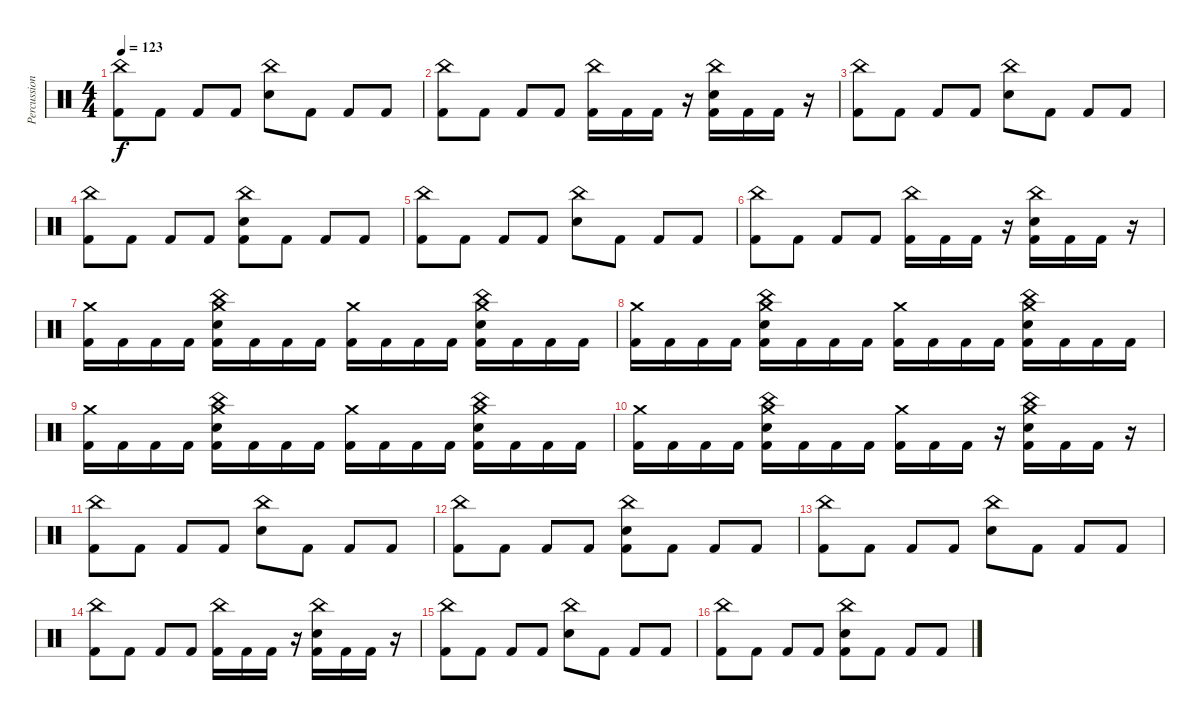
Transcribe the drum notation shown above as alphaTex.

\track ("Percussion" "Percussion") {instrument percussion}
\staff {score}
\articulation defaults
\ts (4 4)
\tempo 123
\clef neutral
\ks c
("China (hit)" "Kick (hit) 2").8{dy f} "Kick (hit) 2".8 "Kick (hit) 2".8 "Kick (hit) 2".8 ("China (hit)" "Snare (hit) 2").8 "Kick (hit) 2".8 "Kick (hit) 2".8 "Kick (hit) 2".8 |
("China (hit)" "Kick (hit) 2").8 "Kick (hit) 2".8 "Kick (hit) 2".8 "Kick (hit) 2".8 ("China (hit)" "Kick (hit) 2").16 "Kick (hit) 2".16 "Kick (hit) 2".16 r.16 ("China (hit)" "Snare (hit) 2" "Kick (hit) 2").16 "Kick (hit) 2".16 "Kick (hit) 2".16 r.16 |
("China (hit)" "Kick (hit) 2").8{volume 16} "Kick (hit) 2".8 "Kick (hit) 2".8 "Kick (hit) 2".8 ("China (hit)" "Snare (hit) 2").8 "Kick (hit) 2".8 "Kick (hit) 2".8 "Kick (hit) 2".8 |
("China (hit)" "Kick (hit) 2").8 "Kick (hit) 2".8 "Kick (hit) 2".8 "Kick (hit) 2".8 ("China (hit)" "Snare (hit) 2" "Kick (hit) 2").8 "Kick (hit) 2".8 "Kick (hit) 2".8 "Kick (hit) 2".8 |
("China (hit)" "Kick (hit) 2").8 "Kick (hit) 2".8 "Kick (hit) 2".8 "Kick (hit) 2".8 ("China (hit)" "Snare (hit) 2").8 "Kick (hit) 2".8 "Kick (hit) 2".8 "Kick (hit) 2".8 |
("China (hit)" "Kick (hit) 2").8 "Kick (hit) 2".8 "Kick (hit) 2".8 "Kick (hit) 2".8 ("China (hit)" "Kick (hit) 2").16 "Kick (hit) 2".16 "Kick (hit) 2".16 r.16 ("China (hit)" "Snare (hit) 2" "Kick (hit) 2").16 "Kick (hit) 2".16 "Kick (hit) 2".16 r.16 |
("Crash medium (hit)" "Kick (hit) 2").16 "Kick (hit) 2".16 "Kick (hit) 2".16 "Kick (hit) 2".16 ("Crash medium (hit)" "China (hit)" "Snare (hit) 2" "Kick (hit) 2").16 "Kick (hit) 2".16 "Kick (hit) 2".16 "Kick (hit) 2".16 ("Crash medium (hit)" "Kick (hit) 2").16 "Kick (hit) 2".16 "Kick (hit) 2".16 "Kick (hit) 2".16 ("Crash medium (hit)" "Snare (hit) 2" "China (hit)" "Kick (hit) 2").16 "Kick (hit) 2".16 "Kick (hit) 2".16 "Kick (hit) 2".16 |
("Crash medium (hit)" "Kick (hit) 2").16 "Kick (hit) 2".16 "Kick (hit) 2".16 "Kick (hit) 2".16 ("Crash medium (hit)" "Snare (hit) 2" "China (hit)" "Kick (hit) 2").16 "Kick (hit) 2".16 "Kick (hit) 2".16 "Kick (hit) 2".16 ("Crash medium (hit)" "Kick (hit) 2").16 "Kick (hit) 2".16 "Kick (hit) 2".16 "Kick (hit) 2".16 ("Crash medium (hit)" "China (hit)" "Snare (hit) 2" "Kick (hit) 2").16 "Kick (hit) 2".16 "Kick (hit) 2".16 "Kick (hit) 2".16 |
("Crash medium (hit)" "Kick (hit) 2").16 "Kick (hit) 2".16 "Kick (hit) 2".16 "Kick (hit) 2".16 ("Crash medium (hit)" "China (hit)" "Snare (hit) 2" "Kick (hit) 2").16 "Kick (hit) 2".16 "Kick (hit) 2".16 "Kick (hit) 2".16 ("Crash medium (hit)" "Kick (hit) 2").16 "Kick (hit) 2".16 "Kick (hit) 2".16 "Kick (hit) 2".16 ("Crash medium (hit)" "Snare (hit) 2" "China (hit)" "Kick (hit) 2").16 "Kick (hit) 2".16 "Kick (hit) 2".16 "Kick (hit) 2".16 |
("Crash medium (hit)" "Kick (hit) 2").16 "Kick (hit) 2".16 "Kick (hit) 2".16 "Kick (hit) 2".16 ("Crash medium (hit)" "Snare (hit) 2" "China (hit)" "Kick (hit) 2").16 "Kick (hit) 2".16 "Kick (hit) 2".16 "Kick (hit) 2".16 ("Crash medium (hit)" "Kick (hit) 2").16 "Kick (hit) 2".16 "Kick (hit) 2".16 r.16 ("Crash medium (hit)" "China (hit)" "Snare (hit) 2" "Kick (hit) 2").16 "Kick (hit) 2".16 "Kick (hit) 2".16 r.16 |
("China (hit)" "Kick (hit) 2").8 "Kick (hit) 2".8 "Kick (hit) 2".8 "Kick (hit) 2".8 ("China (hit)" "Snare (hit) 2").8 "Kick (hit) 2".8 "Kick (hit) 2".8 "Kick (hit) 2".8 |
("China (hit)" "Kick (hit) 2").8 "Kick (hit) 2".8 "Kick (hit) 2".8 "Kick (hit) 2".8 ("China (hit)" "Snare (hit) 2" "Kick (hit) 2").8 "Kick (hit) 2".8 "Kick (hit) 2".8 "Kick (hit) 2".8 |
("China (hit)" "Kick (hit) 2").8 "Kick (hit) 2".8 "Kick (hit) 2".8 "Kick (hit) 2".8 ("China (hit)" "Snare (hit) 2").8 "Kick (hit) 2".8 "Kick (hit) 2".8 "Kick (hit) 2".8 |
("China (hit)" "Kick (hit) 2").8 "Kick (hit) 2".8 "Kick (hit) 2".8 "Kick (hit) 2".8 ("China (hit)" "Kick (hit) 2").16 "Kick (hit) 2".16 "Kick (hit) 2".16 r.16 ("China (hit)" "Snare (hit) 2" "Kick (hit) 2").16 "Kick (hit) 2".16 "Kick (hit) 2".16 r.16 |
("China (hit)" "Kick (hit) 2").8 "Kick (hit) 2".8 "Kick (hit) 2".8 "Kick (hit) 2".8 ("China (hit)" "Snare (hit) 2").8 "Kick (hit) 2".8 "Kick (hit) 2".8 "Kick (hit) 2".8 |
("China (hit)" "Kick (hit) 2").8 "Kick (hit) 2".8 "Kick (hit) 2".8 "Kick (hit) 2".8 ("China (hit)" "Snare (hit) 2" "Kick (hit) 2").8 "Kick (hit) 2".8 "Kick (hit) 2".8 "Kick (hit) 2".8
